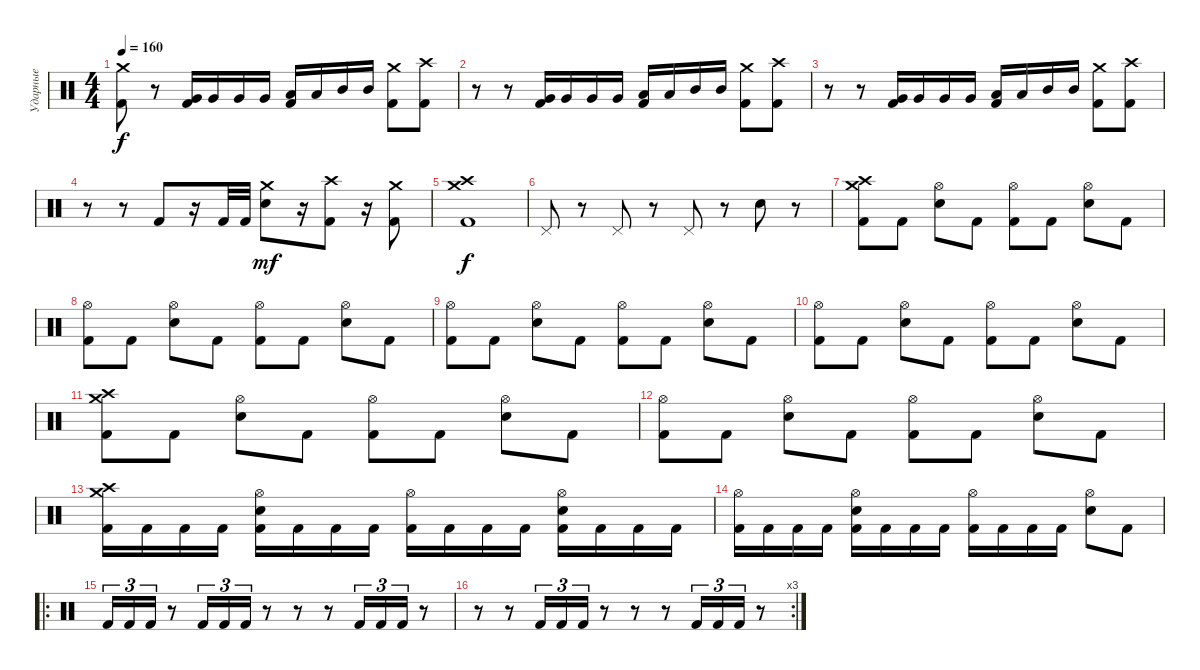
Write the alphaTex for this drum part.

\track ("Ударные" "Ударные") {instrument percussion}
\staff
\articulation defaults
\ts (4 4)
\tempo 160
\clef neutral
\ks c
("Crash medium (hit)" "Kick (hit) 2").8{dy f} r.8 ("Very Low Tom (hit)" "Kick (hit) 2").16 "Very Low Tom (hit)".16 "Very Low Tom (hit)".16 "Very Low Tom (hit)".16 ("Low Tom (hit)" "Kick (hit) 2").16 "Low Tom (hit)".16 "Mid Tom (hit)".16 "Mid Tom (hit)".16 ("Crash medium (hit)" "Kick (hit) 2").8 ("Crash high (hit)" "Kick (hit) 2").8 |
r.8 r.8 ("Very Low Tom (hit)" "Kick (hit) 2").16 "Very Low Tom (hit)".16 "Very Low Tom (hit)".16 "Very Low Tom (hit)".16 ("Low Tom (hit)" "Kick (hit) 2").16 "Low Tom (hit)".16 "Mid Tom (hit)".16 "Mid Tom (hit)".16 ("Crash medium (hit)" "Kick (hit) 2").8 ("Crash high (hit)" "Kick (hit) 2").8 |
r.8 r.8 ("Very Low Tom (hit)" "Kick (hit) 2").16 "Very Low Tom (hit)".16 "Very Low Tom (hit)".16 "Very Low Tom (hit)".16 ("Low Tom (hit)" "Kick (hit) 2").16 "Low Tom (hit)".16 "Mid Tom (hit)".16 "Mid Tom (hit)".16 ("Crash medium (hit)" "Kick (hit) 2").8 ("Crash high (hit)" "Kick (hit) 2").8 |
r.8 r.8 "Kick (hit) 2".8 r.16 "Kick (hit) 2".32 "Kick (hit) 2".32 ("Crash medium (hit)" "Snare (hit) 2").8{dy mf} r.16 ("Crash high (hit)" "Kick (hit) 2").8 r.16 ("Crash medium (hit)" "Kick (hit) 2").8 |
("Crash high (hit)" "Crash medium (hit)" "Kick (hit) 2").1{dy f} |
"Pedal Hi-Hat (hit)".8 r.8 "Pedal Hi-Hat (hit)".8 r.8 "Pedal Hi-Hat (hit)".8 r.8 "Snare (hit) 2".8 r.8 |
("Crash high (hit)" "Crash medium (hit)" "Kick (hit) 2").8 "Kick (hit) 2".8 ("Hi-Hat (open)" "Snare (hit) 2").8 "Kick (hit) 2".8 ("Hi-Hat (open)" "Kick (hit) 2").8 "Kick (hit) 2".8 ("Hi-Hat (open)" "Snare (hit) 2").8 "Kick (hit) 2".8 |
("Hi-Hat (open)" "Kick (hit) 2").8 "Kick (hit) 2".8 ("Hi-Hat (open)" "Snare (hit) 2").8 "Kick (hit) 2".8 ("Hi-Hat (open)" "Kick (hit) 2").8 "Kick (hit) 2".8 ("Hi-Hat (open)" "Snare (hit) 2").8 "Kick (hit) 2".8 |
("Hi-Hat (open)" "Kick (hit) 2").8 "Kick (hit) 2".8 ("Hi-Hat (open)" "Snare (hit) 2").8 "Kick (hit) 2".8 ("Hi-Hat (open)" "Kick (hit) 2").8 "Kick (hit) 2".8 ("Hi-Hat (open)" "Snare (hit) 2").8 "Kick (hit) 2".8 |
("Hi-Hat (open)" "Kick (hit) 2").8 "Kick (hit) 2".8 ("Hi-Hat (open)" "Snare (hit) 2").8 "Kick (hit) 2".8 ("Hi-Hat (open)" "Kick (hit) 2").8 "Kick (hit) 2".8 ("Hi-Hat (open)" "Snare (hit) 2").8 "Kick (hit) 2".8 |
("Crash high (hit)" "Crash medium (hit)" "Kick (hit) 2").8 "Kick (hit) 2".8 ("Hi-Hat (open)" "Snare (hit) 2").8 "Kick (hit) 2".8 ("Hi-Hat (open)" "Kick (hit) 2").8 "Kick (hit) 2".8 ("Hi-Hat (open)" "Snare (hit) 2").8 "Kick (hit) 2".8 |
("Hi-Hat (open)" "Kick (hit) 2").8 "Kick (hit) 2".8 ("Hi-Hat (open)" "Snare (hit) 2").8 "Kick (hit) 2".8 ("Hi-Hat (open)" "Kick (hit) 2").8 "Kick (hit) 2".8 ("Hi-Hat (open)" "Snare (hit) 2").8 "Kick (hit) 2".8 |
("Crash high (hit)" "Crash medium (hit)" "Kick (hit) 2").16 "Kick (hit) 2".16 "Kick (hit) 2".16 "Kick (hit) 2".16 ("Hi-Hat (open)" "Snare (hit) 2" "Kick (hit) 2").16 "Kick (hit) 2".16 "Kick (hit) 2".16 "Kick (hit) 2".16 ("Hi-Hat (open)" "Kick (hit) 2").16 "Kick (hit) 2".16 "Kick (hit) 2".16 "Kick (hit) 2".16 ("Hi-Hat (open)" "Snare (hit) 2" "Kick (hit) 2").16 "Kick (hit) 2".16 "Kick (hit) 2".16 "Kick (hit) 2".16 |
("Hi-Hat (open)" "Kick (hit) 2").16 "Kick (hit) 2".16 "Kick (hit) 2".16 "Kick (hit) 2".16 ("Hi-Hat (open)" "Snare (hit) 2" "Kick (hit) 2").16 "Kick (hit) 2".16 "Kick (hit) 2".16 "Kick (hit) 2".16 ("Hi-Hat (open)" "Kick (hit) 2").16 "Kick (hit) 2".16 "Kick (hit) 2".16 "Kick (hit) 2".16 ("Hi-Hat (open)" "Snare (hit) 2").8 "Kick (hit) 2".8 |
\ro "Kick (hit) 2".16{tu (3 2)} "Kick (hit) 2".16{tu (3 2)} "Kick (hit) 2".16{tu (3 2)}
r.8 "Kick (hit) 2".16{tu (3 2)} "Kick (hit) 2".16{tu (3 2)} "Kick (hit) 2".16{tu (3 2)} r.8 r.8 r.8 "Kick (hit) 2".16{tu (3 2)} "Kick (hit) 2".16{tu (3 2)} "Kick (hit) 2".16{tu (3 2)} r.8 |
\rc 3
r.8 r.8 "Kick (hit) 2".16{tu (3 2)} "Kick (hit) 2".16{tu (3 2)} "Kick (hit) 2".16{tu (3 2)} r.8 r.8 r.8 "Kick (hit) 2".16{tu (3 2)} "Kick (hit) 2".16{tu (3 2)} "Kick (hit) 2".16{tu (3 2)} r.8
